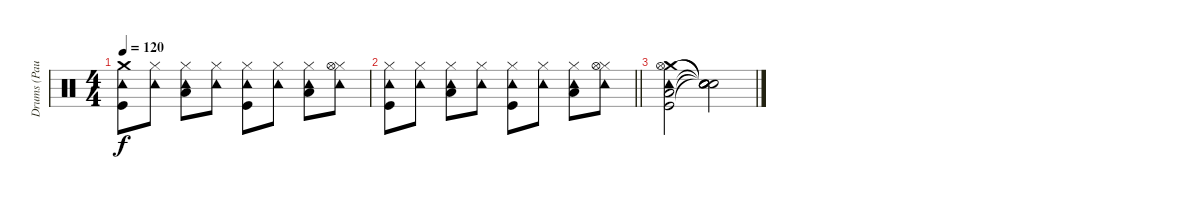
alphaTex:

\track ("Drums (Paul Thomson)" "Drums (Pau") {instrument percussion}
\staff
\articulation defaults
\ts (4 4)
\tempo 120
\clef neutral
\ks c
("Crash medium (hit)" "Kick (hit)" "Tambourine (hit)").8{dy f} ("Hi-Hat (closed)" "Tambourine (hit)").8 ("Hi-Hat (closed)" "Low Floor Tom (hit)" "Tambourine (hit)").8 ("Hi-Hat (closed)" "Tambourine (hit)").8 ("Hi-Hat (closed)" "Kick (hit)" "Tambourine (hit)").8 ("Hi-Hat (closed)" "Tambourine (hit)").8 ("Hi-Hat (closed)" "Low Floor Tom (hit)" "Tambourine (hit)").8 ("Hi-Hat (closed)" "Hi-Hat (open)" "Tambourine (hit)").8 |
\barLineRight lightlight
("Hi-Hat (closed)" "Kick (hit)" "Tambourine (hit)").8 ("Hi-Hat (closed)" "Tambourine (hit)").8 ("Hi-Hat (closed)" "Low Floor Tom (hit)" "Tambourine (hit)").8 ("Hi-Hat (closed)" "Tambourine (hit)").8 ("Hi-Hat (closed)" "Kick (hit)" "Tambourine (hit)").8 ("Hi-Hat (closed)" "Tambourine (hit)").8 ("Hi-Hat (closed)" "Low Floor Tom (hit)" "Tambourine (hit)").8 ("Hi-Hat (closed)" "Hi-Hat (open)" "Tambourine (hit)").8 |
("Crash medium (hit)" "Hi-Hat (open)" "Kick (hit)" "Low Floor Tom (hit)" "Tambourine (hit)").2 ("Snare (hit)"{t} "Snare (hit)"{t} "Snare (hit)"{t} "Snare (hit)"{t} "Snare (hit)"{t}).2
